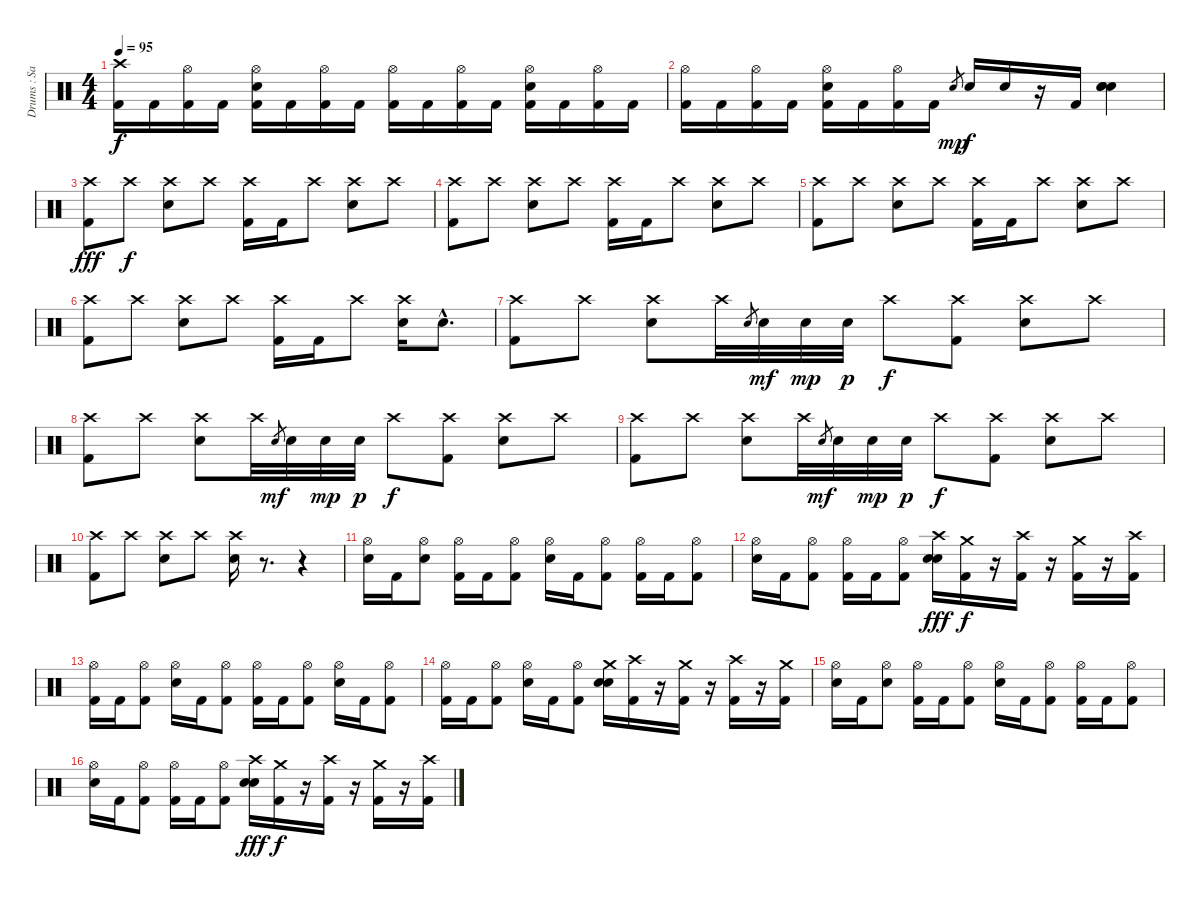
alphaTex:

\track ("Drums : Sammy Siegler" "Drums : Sa") {instrument percussion}
\staff {score}
\articulation defaults
\ts (4 4)
\tempo 95
\clef neutral
\ks c
("Crash high (hit)" "Kick (hit) 2").16{dy f} "Kick (hit) 2".16 ("Hi-Hat (open)" "Kick (hit) 2").16 "Kick (hit) 2".16 ("Hi-Hat (open)" "Electric Snare (hit)" "Kick (hit) 2").16 "Kick (hit) 2".16 ("Hi-Hat (open)" "Kick (hit) 2").16 "Kick (hit) 2".16 ("Hi-Hat (open)" "Kick (hit) 2").16 "Kick (hit) 2".16 ("Hi-Hat (open)" "Kick (hit) 2").16 "Kick (hit) 2".16 ("Hi-Hat (open)" "Electric Snare (hit)" "Kick (hit) 2").16 "Kick (hit) 2".16 ("Hi-Hat (open)" "Kick (hit) 2").16 "Kick (hit) 2".16 |
("Hi-Hat (open)" "Kick (hit) 2").16 "Kick (hit) 2".16 ("Hi-Hat (open)" "Kick (hit) 2").16 "Kick (hit) 2".16 ("Hi-Hat (open)" "Electric Snare (hit)" "Kick (hit) 2").16 "Kick (hit) 2".16 ("Hi-Hat (open)" "Kick (hit) 2").16 "Kick (hit) 2".16 "Electric Snare (hit)"{sl}.8{gr dy mp} "Electric Snare (hit)".16{dy f} "Electric Snare (hit)".16 r.16 "Kick (hit) 2".16 ("Snare (hit) 2" "Electric Snare (hit)" "Electric Snare (hit)").4 |
("Crash high (hit)" "Kick (hit) 2").8{dy fff} "Crash high (hit)".8{dy f} ("Crash high (hit)" "Electric Snare (hit)").8 "Crash high (hit)".8 ("Crash high (hit)" "Kick (hit) 2").16 "Kick (hit) 2".16 "Crash high (hit)".8 ("Crash high (hit)" "Electric Snare (hit)").8 "Crash high (hit)".8 |
("Crash high (hit)" "Kick (hit) 2").8 "Crash high (hit)".8 ("Crash high (hit)" "Electric Snare (hit)").8 "Crash high (hit)".8 ("Crash high (hit)" "Kick (hit) 2").16 "Kick (hit) 2".16 "Crash high (hit)".8 ("Crash high (hit)" "Electric Snare (hit)").8 "Crash high (hit)".8 |
("Crash high (hit)" "Kick (hit) 2").8 "Crash high (hit)".8 ("Crash high (hit)" "Electric Snare (hit)").8 "Crash high (hit)".8 ("Crash high (hit)" "Kick (hit) 2").16 "Kick (hit) 2".16 "Crash high (hit)".8 ("Crash high (hit)" "Electric Snare (hit)").8 "Crash high (hit)".8 |
("Crash high (hit)" "Kick (hit) 2").8 "Crash high (hit)".8 ("Crash high (hit)" "Electric Snare (hit)").8 "Crash high (hit)".8 ("Crash high (hit)" "Kick (hit) 2").16 "Kick (hit) 2".16 "Crash high (hit)".8 ("Crash high (hit)" "Electric Snare (hit)").16 "Electric Snare (hit)"{hac}.8{d} |
("Crash high (hit)" "Kick (hit) 2").8 "Crash high (hit)".8 ("Crash high (hit)" "Electric Snare (hit)").8 "Crash high (hit)".32 "Electric Snare (hit)".8{gr} "Electric Snare (hit)".32{dy mf} "Electric Snare (hit)".32{dy mp} "Electric Snare (hit)".32{dy p} "Crash high (hit)".8{dy f} ("Crash high (hit)" "Kick (hit) 2").8 ("Crash high (hit)" "Electric Snare (hit)").8 "Crash high (hit)".8 |
("Crash high (hit)" "Kick (hit) 2").8 "Crash high (hit)".8 ("Crash high (hit)" "Electric Snare (hit)").8 "Crash high (hit)".32 "Electric Snare (hit)".8{gr dy mf} "Electric Snare (hit)".32 "Electric Snare (hit)".32{dy mp} "Electric Snare (hit)".32{dy p} "Crash high (hit)".8{dy f} ("Crash high (hit)" "Kick (hit) 2").8 ("Crash high (hit)" "Electric Snare (hit)").8 "Crash high (hit)".8 |
("Crash high (hit)" "Kick (hit) 2").8 "Crash high (hit)".8 ("Crash high (hit)" "Electric Snare (hit)").8 "Crash high (hit)".32 "Electric Snare (hit)".8{gr dy mf} "Electric Snare (hit)".32 "Electric Snare (hit)".32{dy mp} "Electric Snare (hit)".32{dy p} "Crash high (hit)".8{dy f} ("Crash high (hit)" "Kick (hit) 2").8 ("Crash high (hit)" "Electric Snare (hit)").8 "Crash high (hit)".8 |
("Crash high (hit)" "Kick (hit) 2").8 "Crash high (hit)".8 ("Crash high (hit)" "Electric Snare (hit)").8 "Crash high (hit)".8 ("Crash high (hit)" "Electric Snare (hit)").16 r.8{d} r.4 |
("Hi-Hat (open)" "Electric Snare (hit)").16 "Kick (hit) 2".16 ("Hi-Hat (open)" "Electric Snare (hit)").8 ("Hi-Hat (open)" "Kick (hit) 2").16 "Kick (hit) 2".16 ("Hi-Hat (open)" "Kick (hit) 2").8 ("Hi-Hat (open)" "Electric Snare (hit)").16 "Kick (hit) 2".16 ("Hi-Hat (open)" "Kick (hit) 2").8 ("Hi-Hat (open)" "Kick (hit) 2").16 "Kick (hit) 2".16 ("Hi-Hat (open)" "Kick (hit) 2").8 |
("Hi-Hat (open)" "Electric Snare (hit)").16 "Kick (hit) 2".16 ("Hi-Hat (open)" "Kick (hit) 2").8 ("Hi-Hat (open)" "Kick (hit) 2").16 "Kick (hit) 2".16 ("Hi-Hat (open)" "Kick (hit) 2").8 ("Crash high (hit)" "Electric Snare (hit)" "Electric Snare (hit)").16{dy fff} ("Crash medium (hit)" "Kick (hit) 2").16{dy f} r.16 ("Crash high (hit)" "Kick (hit) 2").16 r.16 ("Crash medium (hit)" "Kick (hit) 2").16 r.16 ("Crash high (hit)" "Kick (hit) 2").16 |
("Hi-Hat (open)" "Kick (hit) 2").16 "Kick (hit) 2".16 ("Hi-Hat (open)" "Kick (hit) 2").8 ("Hi-Hat (open)" "Electric Snare (hit)").16 "Kick (hit) 2".16 ("Hi-Hat (open)" "Kick (hit) 2").8 ("Hi-Hat (open)" "Kick (hit) 2").16 "Kick (hit) 2".16 ("Hi-Hat (open)" "Kick (hit) 2").8 ("Hi-Hat (open)" "Electric Snare (hit)").16 "Kick (hit) 2".16 ("Hi-Hat (open)" "Kick (hit) 2").8 |
("Hi-Hat (open)" "Kick (hit) 2").16 "Kick (hit) 2".16 ("Hi-Hat (open)" "Kick (hit) 2").8 ("Hi-Hat (open)" "Electric Snare (hit)").16 "Kick (hit) 2".16 ("Hi-Hat (open)" "Kick (hit) 2").8 ("Crash medium (hit)" "Electric Snare (hit)" "Electric Snare (hit)").16 ("Crash high (hit)" "Kick (hit) 2").16 r.16 ("Crash medium (hit)" "Kick (hit) 2").16 r.16 ("Crash high (hit)" "Kick (hit) 2").16 r.16 ("Crash medium (hit)" "Kick (hit) 2").16 |
("Hi-Hat (open)" "Electric Snare (hit)").16 "Kick (hit) 2".16 ("Hi-Hat (open)" "Electric Snare (hit)").8 ("Hi-Hat (open)" "Kick (hit) 2").16 "Kick (hit) 2".16 ("Hi-Hat (open)" "Kick (hit) 2").8 ("Hi-Hat (open)" "Electric Snare (hit)").16 "Kick (hit) 2".16 ("Hi-Hat (open)" "Kick (hit) 2").8 ("Hi-Hat (open)" "Kick (hit) 2").16 "Kick (hit) 2".16 ("Hi-Hat (open)" "Kick (hit) 2").8 |
("Hi-Hat (open)" "Electric Snare (hit)").16 "Kick (hit) 2".16 ("Hi-Hat (open)" "Kick (hit) 2").8 ("Hi-Hat (open)" "Kick (hit) 2").16 "Kick (hit) 2".16 ("Hi-Hat (open)" "Kick (hit) 2").8 ("Crash high (hit)" "Electric Snare (hit)" "Electric Snare (hit)").16{dy fff} ("Crash medium (hit)" "Kick (hit) 2").16{dy f} r.16 ("Crash high (hit)" "Kick (hit) 2").16 r.16 ("Crash medium (hit)" "Kick (hit) 2").16 r.16 ("Crash high (hit)" "Kick (hit) 2").16
